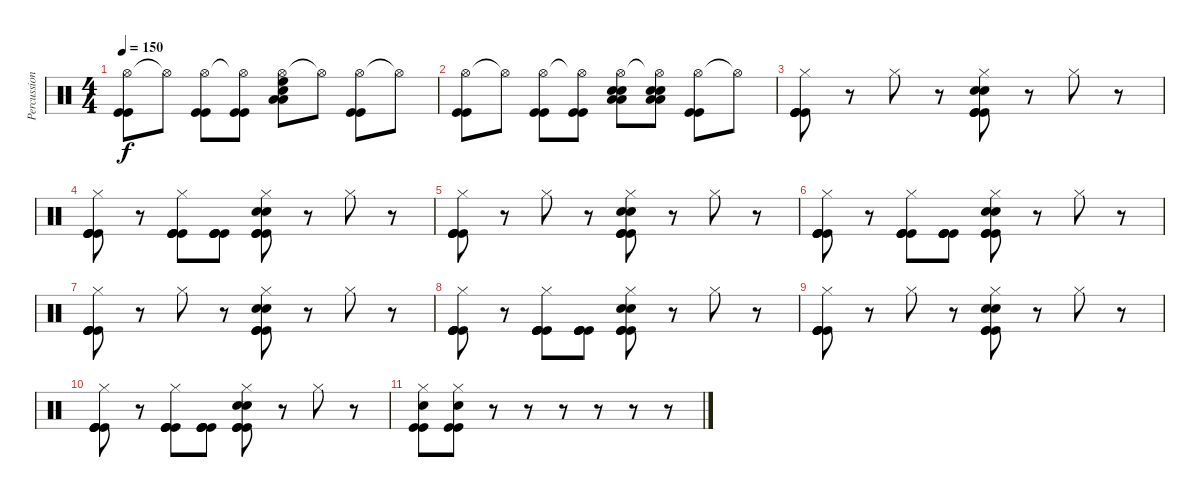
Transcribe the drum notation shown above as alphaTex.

\track ("Percussion" "Percussion") {instrument percussion}
\staff {score}
\articulation defaults
\ts (4 4)
\tempo 150
\clef neutral
\ks c
("Hi-Hat (open)" "Kick (hit)" "Kick (hit)").8{dy f} "Hi-Hat (open)"{t}.8 ("Hi-Hat (open)" "Kick (hit)" "Kick (hit)").8 ("Hi-Hat (open)"{t} "Kick (hit)" "Kick (hit)").8 ("Hi-Hat (open)" "Electric Snare (hit)" "High Floor Tom (hit)" "Low Tom (hit)" "Low Tom (hit)").8 "Hi-Hat (open)"{t}.8 ("Hi-Hat (open)" "Kick (hit)" "Kick (hit)").8 "Hi-Hat (open)"{t}.8 |
("Hi-Hat (open)" "Kick (hit)" "Kick (hit)").8 "Hi-Hat (open)"{t}.8 ("Hi-Hat (open)" "Kick (hit)" "Kick (hit)").8 ("Hi-Hat (open)"{t} "Kick (hit)" "Kick (hit)").8 ("Hi-Hat (open)" "Electric Snare (hit)" "Electric Snare (hit)" "Low Tom (hit)" "Low Tom (hit)").8 ("Hi-Hat (open)"{t} "Electric Snare (hit)" "Electric Snare (hit)" "Low Tom (hit)" "Low Tom (hit)").8 ("Hi-Hat (open)" "Kick (hit)" "Kick (hit)").8 "Hi-Hat (open)"{t}.8 |
("Hi-Hat (closed)" "Kick (hit)" "Kick (hit)" "Kick (hit)" "Kick (hit)").8 r.8 "Hi-Hat (closed)".8 r.8 ("Hi-Hat (closed)" "Kick (hit)" "Kick (hit)" "Kick (hit)" "Electric Snare (hit)" "Electric Snare (hit)").8 r.8 "Hi-Hat (closed)".8 r.8 |
("Hi-Hat (closed)" "Kick (hit)" "Kick (hit)" "Kick (hit)" "Kick (hit)").8 r.8 ("Hi-Hat (closed)" "Kick (hit)" "Kick (hit)" "Kick (hit)" "Kick (hit)").8 ("Kick (hit)" "Kick (hit)" "Kick (hit)" "Kick (hit)").8 ("Hi-Hat (closed)" "Kick (hit)" "Kick (hit)" "Kick (hit)" "Electric Snare (hit)" "Electric Snare (hit)").8 r.8 "Hi-Hat (closed)".8 r.8 |
("Hi-Hat (closed)" "Kick (hit)" "Kick (hit)" "Kick (hit)" "Kick (hit)").8 r.8 "Hi-Hat (closed)".8 r.8 ("Hi-Hat (closed)" "Kick (hit)" "Kick (hit)" "Kick (hit)" "Electric Snare (hit)" "Electric Snare (hit)").8 r.8 "Hi-Hat (closed)".8 r.8 |
("Hi-Hat (closed)" "Kick (hit)" "Kick (hit)" "Kick (hit)" "Kick (hit)").8 r.8 ("Hi-Hat (closed)" "Kick (hit)" "Kick (hit)" "Kick (hit)" "Kick (hit)").8 ("Kick (hit)" "Kick (hit)" "Kick (hit)" "Kick (hit)").8 ("Hi-Hat (closed)" "Kick (hit)" "Kick (hit)" "Kick (hit)" "Electric Snare (hit)" "Electric Snare (hit)").8 r.8 "Hi-Hat (closed)".8 r.8 |
("Hi-Hat (closed)" "Kick (hit)" "Kick (hit)" "Kick (hit)" "Kick (hit)").8 r.8 "Hi-Hat (closed)".8 r.8 ("Hi-Hat (closed)" "Kick (hit)" "Kick (hit)" "Kick (hit)" "Electric Snare (hit)" "Electric Snare (hit)").8 r.8 "Hi-Hat (closed)".8 r.8 |
("Hi-Hat (closed)" "Kick (hit)" "Kick (hit)" "Kick (hit)" "Kick (hit)").8 r.8 ("Hi-Hat (closed)" "Kick (hit)" "Kick (hit)" "Kick (hit)" "Kick (hit)").8 ("Kick (hit)" "Kick (hit)" "Kick (hit)" "Kick (hit)").8 ("Hi-Hat (closed)" "Kick (hit)" "Kick (hit)" "Kick (hit)" "Electric Snare (hit)" "Electric Snare (hit)").8 r.8 "Hi-Hat (closed)".8 r.8 |
("Hi-Hat (closed)" "Kick (hit)" "Kick (hit)" "Kick (hit)" "Kick (hit)").8 r.8 "Hi-Hat (closed)".8 r.8 ("Hi-Hat (closed)" "Kick (hit)" "Kick (hit)" "Kick (hit)" "Electric Snare (hit)" "Electric Snare (hit)").8 r.8 "Hi-Hat (closed)".8 r.8 |
("Hi-Hat (closed)" "Kick (hit)" "Kick (hit)" "Kick (hit)" "Kick (hit)").8 r.8 ("Hi-Hat (closed)" "Kick (hit)" "Kick (hit)" "Kick (hit)" "Kick (hit)").8 ("Kick (hit)" "Kick (hit)" "Kick (hit)" "Kick (hit)").8 ("Hi-Hat (closed)" "Kick (hit)" "Kick (hit)" "Kick (hit)" "Electric Snare (hit)" "Electric Snare (hit)").8 r.8 "Hi-Hat (closed)".8 r.8 |
("Hi-Hat (closed)" "Kick (hit)" "Kick (hit)" "Electric Snare (hit)").8 ("Hi-Hat (closed)" "Kick (hit)" "Kick (hit)" "Electric Snare (hit)").8 r.8 r.8 r.8 r.8 r.8 r.8
